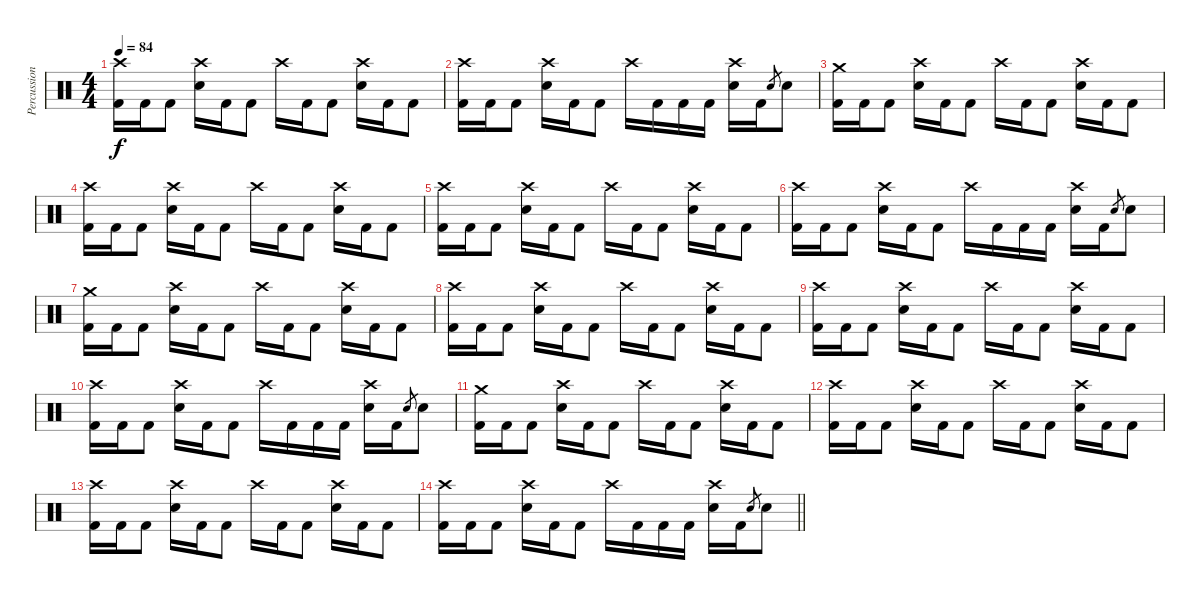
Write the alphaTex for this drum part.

\track ("Percussion" "Percussion") {instrument percussion}
\staff {score}
\articulation defaults
\ts (4 4)
\tempo 84
\clef neutral
\ks c
("Crash high (hit)" "Kick (hit) 2").16{dy f} "Kick (hit) 2".16 "Kick (hit) 2".8 ("Crash high (hit)" "Electric Snare (hit)").16 "Kick (hit) 2".16 "Kick (hit) 2".8 "Crash high (hit)".16 "Kick (hit) 2".16 "Kick (hit) 2".8 ("Crash high (hit)" "Electric Snare (hit)").16 "Kick (hit) 2".16 "Kick (hit) 2".8 |
("Crash high (hit)" "Kick (hit) 2").16 "Kick (hit) 2".16 "Kick (hit) 2".8 ("Crash high (hit)" "Electric Snare (hit)").16 "Kick (hit) 2".16 "Kick (hit) 2".8 "Crash high (hit)".16 "Kick (hit) 2".16 "Kick (hit) 2".16 "Kick (hit) 2".16 ("Crash high (hit)" "Electric Snare (hit)").16 "Kick (hit) 2".16 "Electric Snare (hit)".8{gr} "Electric Snare (hit)".8 |
("Crash medium (hit)" "Kick (hit) 2").16{volume 7} "Kick (hit) 2".16 "Kick (hit) 2".8 ("Crash high (hit)" "Electric Snare (hit)").16 "Kick (hit) 2".16 "Kick (hit) 2".8 "Crash high (hit)".16 "Kick (hit) 2".16 "Kick (hit) 2".8 ("Crash high (hit)" "Electric Snare (hit)").16 "Kick (hit) 2".16 "Kick (hit) 2".8 |
("Crash high (hit)" "Kick (hit) 2").16 "Kick (hit) 2".16 "Kick (hit) 2".8 ("Crash high (hit)" "Electric Snare (hit)").16 "Kick (hit) 2".16 "Kick (hit) 2".8 "Crash high (hit)".16 "Kick (hit) 2".16 "Kick (hit) 2".8 ("Crash high (hit)" "Electric Snare (hit)").16 "Kick (hit) 2".16 "Kick (hit) 2".8 |
("Crash high (hit)" "Kick (hit) 2").16 "Kick (hit) 2".16 "Kick (hit) 2".8 ("Crash high (hit)" "Electric Snare (hit)").16 "Kick (hit) 2".16 "Kick (hit) 2".8 "Crash high (hit)".16 "Kick (hit) 2".16 "Kick (hit) 2".8 ("Crash high (hit)" "Electric Snare (hit)").16 "Kick (hit) 2".16 "Kick (hit) 2".8 |
("Crash high (hit)" "Kick (hit) 2").16 "Kick (hit) 2".16 "Kick (hit) 2".8 ("Crash high (hit)" "Electric Snare (hit)").16 "Kick (hit) 2".16 "Kick (hit) 2".8 "Crash high (hit)".16 "Kick (hit) 2".16 "Kick (hit) 2".16 "Kick (hit) 2".16 ("Crash high (hit)" "Electric Snare (hit)").16 "Kick (hit) 2".16 "Electric Snare (hit)".8{gr} "Electric Snare (hit)".8 |
("Crash medium (hit)" "Kick (hit) 2").16{volume 4} "Kick (hit) 2".16 "Kick (hit) 2".8 ("Crash high (hit)" "Electric Snare (hit)").16 "Kick (hit) 2".16 "Kick (hit) 2".8 "Crash high (hit)".16 "Kick (hit) 2".16 "Kick (hit) 2".8 ("Crash high (hit)" "Electric Snare (hit)").16 "Kick (hit) 2".16 "Kick (hit) 2".8 |
("Crash high (hit)" "Kick (hit) 2").16 "Kick (hit) 2".16 "Kick (hit) 2".8 ("Crash high (hit)" "Electric Snare (hit)").16 "Kick (hit) 2".16 "Kick (hit) 2".8 "Crash high (hit)".16 "Kick (hit) 2".16 "Kick (hit) 2".8 ("Crash high (hit)" "Electric Snare (hit)").16 "Kick (hit) 2".16 "Kick (hit) 2".8 |
("Crash high (hit)" "Kick (hit) 2").16 "Kick (hit) 2".16 "Kick (hit) 2".8 ("Crash high (hit)" "Electric Snare (hit)").16 "Kick (hit) 2".16 "Kick (hit) 2".8 "Crash high (hit)".16 "Kick (hit) 2".16 "Kick (hit) 2".8 ("Crash high (hit)" "Electric Snare (hit)").16 "Kick (hit) 2".16 "Kick (hit) 2".8 |
("Crash high (hit)" "Kick (hit) 2").16 "Kick (hit) 2".16 "Kick (hit) 2".8 ("Crash high (hit)" "Electric Snare (hit)").16 "Kick (hit) 2".16 "Kick (hit) 2".8 "Crash high (hit)".16 "Kick (hit) 2".16 "Kick (hit) 2".16 "Kick (hit) 2".16 ("Crash high (hit)" "Electric Snare (hit)").16 "Kick (hit) 2".16 "Electric Snare (hit)".8{gr} "Electric Snare (hit)".8 |
("Crash medium (hit)" "Kick (hit) 2").16{volume 0} "Kick (hit) 2".16 "Kick (hit) 2".8 ("Crash high (hit)" "Electric Snare (hit)").16 "Kick (hit) 2".16 "Kick (hit) 2".8 "Crash high (hit)".16 "Kick (hit) 2".16 "Kick (hit) 2".8 ("Crash high (hit)" "Electric Snare (hit)").16 "Kick (hit) 2".16 "Kick (hit) 2".8 |
("Crash high (hit)" "Kick (hit) 2").16 "Kick (hit) 2".16 "Kick (hit) 2".8 ("Crash high (hit)" "Electric Snare (hit)").16 "Kick (hit) 2".16 "Kick (hit) 2".8 "Crash high (hit)".16 "Kick (hit) 2".16 "Kick (hit) 2".8 ("Crash high (hit)" "Electric Snare (hit)").16 "Kick (hit) 2".16 "Kick (hit) 2".8 |
("Crash high (hit)" "Kick (hit) 2").16 "Kick (hit) 2".16 "Kick (hit) 2".8 ("Crash high (hit)" "Electric Snare (hit)").16 "Kick (hit) 2".16 "Kick (hit) 2".8 "Crash high (hit)".16 "Kick (hit) 2".16 "Kick (hit) 2".8 ("Crash high (hit)" "Electric Snare (hit)").16 "Kick (hit) 2".16 "Kick (hit) 2".8 |
\barLineRight lightlight
("Crash high (hit)" "Kick (hit) 2").16 "Kick (hit) 2".16 "Kick (hit) 2".8 ("Crash high (hit)" "Electric Snare (hit)").16 "Kick (hit) 2".16 "Kick (hit) 2".8 "Crash high (hit)".16 "Kick (hit) 2".16 "Kick (hit) 2".16 "Kick (hit) 2".16 ("Crash high (hit)" "Electric Snare (hit)").16 "Kick (hit) 2".16 "Electric Snare (hit)".8{gr} "Electric Snare (hit)".8
